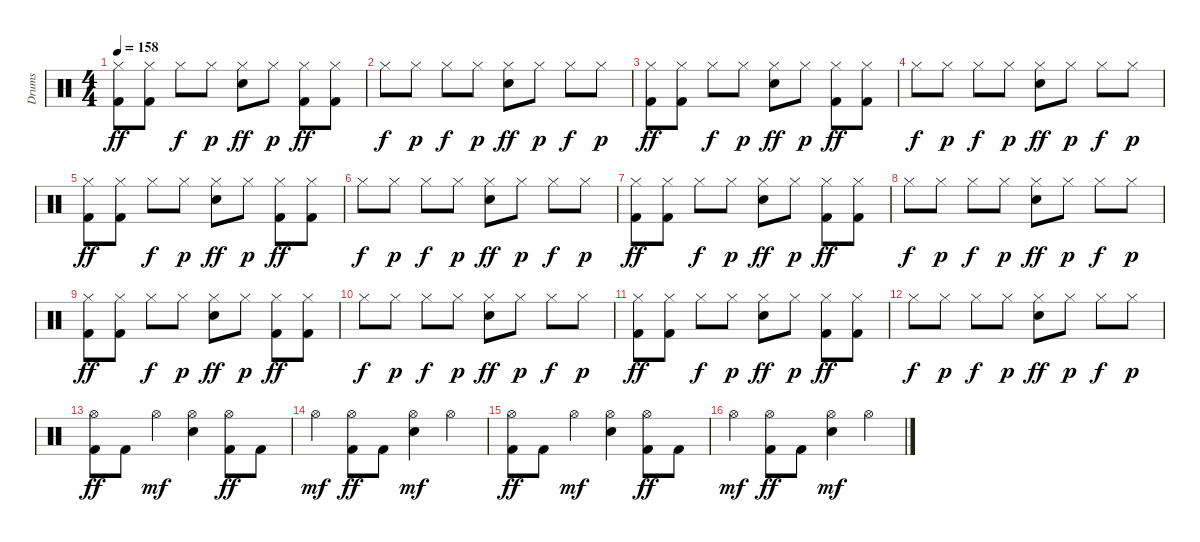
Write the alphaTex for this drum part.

\track ("Drums" "Drums") {instrument percussion}
\staff {score}
\articulation defaults
\ts (4 4)
\tempo 158
\clef neutral
\ks c
("Hi-Hat (closed)" "Kick (hit) 2").8{dy ff} ("Hi-Hat (closed)" "Kick (hit) 2").8 "Hi-Hat (closed)".8{dy f} "Hi-Hat (closed)".8{dy p} ("Hi-Hat (closed)" "Electric Snare (hit)").8{dy ff} "Hi-Hat (closed)".8{dy p} ("Hi-Hat (closed)" "Kick (hit) 2").8{dy ff} ("Hi-Hat (closed)" "Kick (hit) 2").8 |
"Hi-Hat (closed)".8{dy f} "Hi-Hat (closed)".8{dy p} "Hi-Hat (closed)".8{dy f} "Hi-Hat (closed)".8{dy p} ("Hi-Hat (closed)" "Electric Snare (hit)").8{dy ff} "Hi-Hat (closed)".8{dy p} "Hi-Hat (closed)".8{dy f} "Hi-Hat (closed)".8{dy p} |
("Hi-Hat (closed)" "Kick (hit) 2").8{dy ff} ("Hi-Hat (closed)" "Kick (hit) 2").8 "Hi-Hat (closed)".8{dy f} "Hi-Hat (closed)".8{dy p} ("Hi-Hat (closed)" "Electric Snare (hit)").8{dy ff} "Hi-Hat (closed)".8{dy p} ("Hi-Hat (closed)" "Kick (hit) 2").8{dy ff} ("Hi-Hat (closed)" "Kick (hit) 2").8 |
"Hi-Hat (closed)".8{dy f} "Hi-Hat (closed)".8{dy p} "Hi-Hat (closed)".8{dy f} "Hi-Hat (closed)".8{dy p} ("Hi-Hat (closed)" "Electric Snare (hit)").8{dy ff} "Hi-Hat (closed)".8{dy p} "Hi-Hat (closed)".8{dy f} "Hi-Hat (closed)".8{dy p} |
("Hi-Hat (closed)" "Kick (hit) 2").8{dy ff} ("Hi-Hat (closed)" "Kick (hit) 2").8 "Hi-Hat (closed)".8{dy f} "Hi-Hat (closed)".8{dy p} ("Hi-Hat (closed)" "Electric Snare (hit)").8{dy ff} "Hi-Hat (closed)".8{dy p} ("Hi-Hat (closed)" "Kick (hit) 2").8{dy ff} ("Hi-Hat (closed)" "Kick (hit) 2").8 |
"Hi-Hat (closed)".8{dy f} "Hi-Hat (closed)".8{dy p} "Hi-Hat (closed)".8{dy f} "Hi-Hat (closed)".8{dy p} ("Hi-Hat (closed)" "Electric Snare (hit)").8{dy ff} "Hi-Hat (closed)".8{dy p} "Hi-Hat (closed)".8{dy f} "Hi-Hat (closed)".8{dy p} |
("Hi-Hat (closed)" "Kick (hit) 2").8{dy ff} ("Hi-Hat (closed)" "Kick (hit) 2").8 "Hi-Hat (closed)".8{dy f} "Hi-Hat (closed)".8{dy p} ("Hi-Hat (closed)" "Electric Snare (hit)").8{dy ff} "Hi-Hat (closed)".8{dy p} ("Hi-Hat (closed)" "Kick (hit) 2").8{dy ff} ("Hi-Hat (closed)" "Kick (hit) 2").8 |
"Hi-Hat (closed)".8{dy f} "Hi-Hat (closed)".8{dy p} "Hi-Hat (closed)".8{dy f} "Hi-Hat (closed)".8{dy p} ("Hi-Hat (closed)" "Electric Snare (hit)").8{dy ff} "Hi-Hat (closed)".8{dy p} "Hi-Hat (closed)".8{dy f} "Hi-Hat (closed)".8{dy p} |
("Hi-Hat (closed)" "Kick (hit) 2").8{dy ff} ("Hi-Hat (closed)" "Kick (hit) 2").8 "Hi-Hat (closed)".8{dy f} "Hi-Hat (closed)".8{dy p} ("Hi-Hat (closed)" "Electric Snare (hit)").8{dy ff} "Hi-Hat (closed)".8{dy p} ("Hi-Hat (closed)" "Kick (hit) 2").8{dy ff} ("Hi-Hat (closed)" "Kick (hit) 2").8 |
"Hi-Hat (closed)".8{dy f} "Hi-Hat (closed)".8{dy p} "Hi-Hat (closed)".8{dy f} "Hi-Hat (closed)".8{dy p} ("Hi-Hat (closed)" "Electric Snare (hit)").8{dy ff} "Hi-Hat (closed)".8{dy p} "Hi-Hat (closed)".8{dy f} "Hi-Hat (closed)".8{dy p} |
("Hi-Hat (closed)" "Kick (hit) 2").8{dy ff} ("Hi-Hat (closed)" "Kick (hit) 2").8 "Hi-Hat (closed)".8{dy f} "Hi-Hat (closed)".8{dy p} ("Hi-Hat (closed)" "Electric Snare (hit)").8{dy ff} "Hi-Hat (closed)".8{dy p} ("Hi-Hat (closed)" "Kick (hit) 2").8{dy ff} ("Hi-Hat (closed)" "Kick (hit) 2").8 |
"Hi-Hat (closed)".8{dy f} "Hi-Hat (closed)".8{dy p} "Hi-Hat (closed)".8{dy f} "Hi-Hat (closed)".8{dy p} ("Hi-Hat (closed)" "Electric Snare (hit)").8{dy ff} "Hi-Hat (closed)".8{dy p} "Hi-Hat (closed)".8{dy f} "Hi-Hat (closed)".8{dy p} |
("Hi-Hat (open)" "Kick (hit) 2").8{dy ff} "Kick (hit) 2".8 "Hi-Hat (open)".4{dy mf} ("Hi-Hat (open)" "Electric Snare (hit)").4 ("Hi-Hat (open)" "Kick (hit) 2").8{dy ff} "Kick (hit) 2".8 |
"Hi-Hat (open)".4{dy mf} ("Hi-Hat (open)" "Kick (hit) 2").8{dy ff} "Kick (hit) 2".8 ("Hi-Hat (open)" "Electric Snare (hit)").4{dy mf} "Hi-Hat (open)".4 |
("Hi-Hat (open)" "Kick (hit) 2").8{dy ff} "Kick (hit) 2".8 "Hi-Hat (open)".4{dy mf} ("Hi-Hat (open)" "Electric Snare (hit)").4 ("Hi-Hat (open)" "Kick (hit) 2").8{dy ff} "Kick (hit) 2".8 |
"Hi-Hat (open)".4{dy mf} ("Hi-Hat (open)" "Kick (hit) 2").8{dy ff} "Kick (hit) 2".8 ("Hi-Hat (open)" "Electric Snare (hit)").4{dy mf} "Hi-Hat (open)".4
